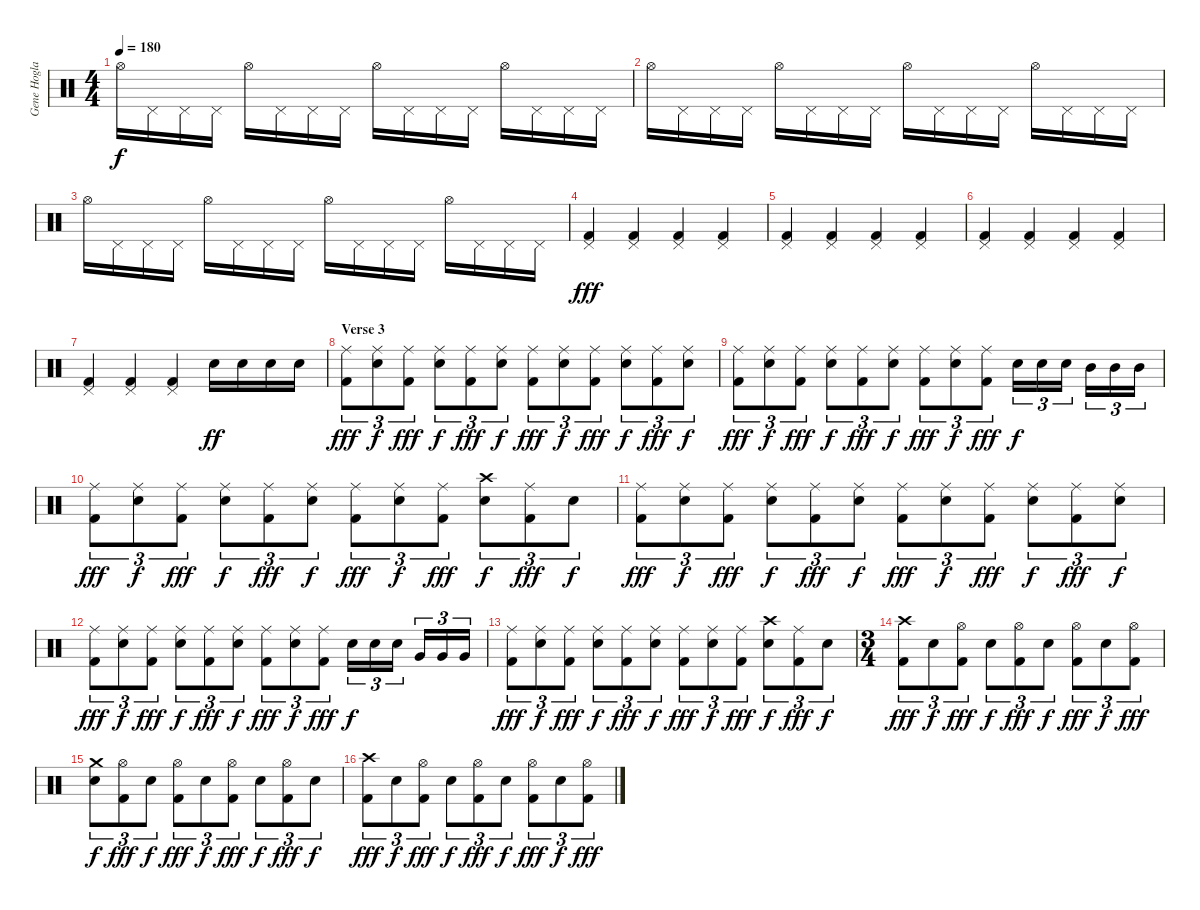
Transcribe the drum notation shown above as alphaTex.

\track ("Gene Hoglan" "Gene Hogla") {instrument percussion}
\staff {score}
\articulation defaults
\ts (4 4)
\tempo 180
\clef neutral
\ks c "Hi-Hat (open)".16{dy f} "Pedal Hi-Hat (hit)".16 "Pedal Hi-Hat (hit)".16 "Pedal Hi-Hat (hit)".16 "Hi-Hat (open)".16 "Pedal Hi-Hat (hit)".16 "Pedal Hi-Hat (hit)".16 "Pedal Hi-Hat (hit)".16 "Hi-Hat (open)".16 "Pedal Hi-Hat (hit)".16 "Pedal Hi-Hat (hit)".16 "Pedal Hi-Hat (hit)".16 "Hi-Hat (open)".16 "Pedal Hi-Hat (hit)".16 "Pedal Hi-Hat (hit)".16 "Pedal Hi-Hat (hit)".16
|
"Hi-Hat (open)".16 "Pedal Hi-Hat (hit)".16 "Pedal Hi-Hat (hit)".16 "Pedal Hi-Hat (hit)".16 "Hi-Hat (open)".16 "Pedal Hi-Hat (hit)".16 "Pedal Hi-Hat (hit)".16 "Pedal Hi-Hat (hit)".16 "Hi-Hat (open)".16 "Pedal Hi-Hat (hit)".16 "Pedal Hi-Hat (hit)".16 "Pedal Hi-Hat (hit)".16 "Hi-Hat (open)".16 "Pedal Hi-Hat (hit)".16 "Pedal Hi-Hat (hit)".16 "Pedal Hi-Hat (hit)".16 |
"Hi-Hat (open)".16 "Pedal Hi-Hat (hit)".16 "Pedal Hi-Hat (hit)".16 "Pedal Hi-Hat (hit)".16 "Hi-Hat (open)".16 "Pedal Hi-Hat (hit)".16 "Pedal Hi-Hat (hit)".16 "Pedal Hi-Hat (hit)".16 "Hi-Hat (open)".16 "Pedal Hi-Hat (hit)".16 "Pedal Hi-Hat (hit)".16 "Pedal Hi-Hat (hit)".16 "Hi-Hat (open)".16 "Pedal Hi-Hat (hit)".16 "Pedal Hi-Hat (hit)".16 "Pedal Hi-Hat (hit)".16 |
("Pedal Hi-Hat (hit)" "Kick (hit) 2").4{dy fff} ("Pedal Hi-Hat (hit)" "Kick (hit) 2").4 ("Pedal Hi-Hat (hit)" "Kick (hit) 2").4 ("Pedal Hi-Hat (hit)" "Kick (hit) 2").4 |
("Pedal Hi-Hat (hit)" "Kick (hit) 2").4 ("Pedal Hi-Hat (hit)" "Kick (hit) 2").4 ("Pedal Hi-Hat (hit)" "Kick (hit) 2").4 ("Pedal Hi-Hat (hit)" "Kick (hit) 2").4 |
("Pedal Hi-Hat (hit)" "Kick (hit) 2").4 ("Pedal Hi-Hat (hit)" "Kick (hit) 2").4 ("Pedal Hi-Hat (hit)" "Kick (hit) 2").4 ("Pedal Hi-Hat (hit)" "Kick (hit) 2").4 |
("Pedal Hi-Hat (hit)" "Kick (hit) 2").4 ("Pedal Hi-Hat (hit)" "Kick (hit) 2").4 ("Pedal Hi-Hat (hit)" "Kick (hit) 2").4 "Snare (hit) 2".16{dy ff} "Snare (hit) 2".16 "Snare (hit) 2".16 "Snare (hit) 2".16 |
\section ("" "Verse 3")
("Ride (middle)" "Kick (hit) 2").8{tu (3 2) dy fff} ("Snare (hit) 2" "Ride (middle)").8{tu (3 2) dy f} ("Ride (middle)" "Kick (hit) 2").8{tu (3 2) dy fff} ("Snare (hit) 2" "Ride (middle)").8{tu (3 2) dy f} ("Ride (middle)" "Kick (hit) 2").8{tu (3 2) dy fff} ("Snare (hit) 2" "Ride (middle)").8{tu (3 2) dy f} ("Ride (middle)" "Kick (hit) 2").8{tu (3 2) dy fff} ("Snare (hit) 2" "Ride (middle)").8{tu (3 2) dy f} ("Ride (middle)" "Kick (hit) 2").8{tu (3 2) dy fff} ("Snare (hit) 2" "Ride (middle)").8{tu (3 2) dy f} ("Ride (middle)" "Kick (hit) 2").8{tu (3 2) dy fff} ("Snare (hit) 2" "Ride (middle)").8{tu (3 2) dy f} |
("Ride (middle)" "Kick (hit) 2").8{tu (3 2) dy fff} ("Snare (hit) 2" "Ride (middle)").8{tu (3 2) dy f} ("Ride (middle)" "Kick (hit) 2").8{tu (3 2) dy fff} ("Snare (hit) 2" "Ride (middle)").8{tu (3 2) dy f} ("Ride (middle)" "Kick (hit) 2").8{tu (3 2) dy fff} ("Snare (hit) 2" "Ride (middle)").8{tu (3 2) dy f} ("Ride (middle)" "Kick (hit) 2").8{tu (3 2) dy fff} ("Snare (hit) 2" "Ride (middle)").8{tu (3 2) dy f} ("Ride (middle)" "Kick (hit) 2").8{tu (3 2) dy fff} "Snare (hit) 2".16{tu (3 2) dy f} "Snare (hit) 2".16{tu (3 2)} "Snare (hit) 2".16{tu (3 2)} "Mid Tom (hit)".16{tu (3 2)} "Mid Tom (hit)".16{tu (3 2)} "Mid Tom (hit)".16{tu (3 2)} |
("Ride (middle)" "Kick (hit) 2").8{tu (3 2) dy fff} ("Snare (hit) 2" "Ride (middle)").8{tu (3 2) dy f} ("Ride (middle)" "Kick (hit) 2").8{tu (3 2) dy fff} ("Snare (hit) 2" "Ride (middle)").8{tu (3 2) dy f} ("Ride (middle)" "Kick (hit) 2").8{tu (3 2) dy fff} ("Snare (hit) 2" "Ride (middle)").8{tu (3 2) dy f} ("Ride (middle)" "Kick (hit) 2").8{tu (3 2) dy fff} ("Snare (hit) 2" "Ride (middle)").8{tu (3 2) dy f} ("Ride (middle)" "Kick (hit) 2").8{tu (3 2) dy fff} ("Crash high (hit)" "Snare (hit) 2").8{tu (3 2) dy f} ("Ride (middle)" "Kick (hit) 2").8{tu (3 2) dy fff} "Snare (hit) 2".8{tu (3 2) dy f} |
("Ride (middle)" "Kick (hit) 2").8{tu (3 2) dy fff} ("Snare (hit) 2" "Ride (middle)").8{tu (3 2) dy f} ("Ride (middle)" "Kick (hit) 2").8{tu (3 2) dy fff} ("Snare (hit) 2" "Ride (middle)").8{tu (3 2) dy f} ("Ride (middle)" "Kick (hit) 2").8{tu (3 2) dy fff} ("Snare (hit) 2" "Ride (middle)").8{tu (3 2) dy f} ("Ride (middle)" "Kick (hit) 2").8{tu (3 2) dy fff} ("Snare (hit) 2" "Ride (middle)").8{tu (3 2) dy f} ("Ride (middle)" "Kick (hit) 2").8{tu (3 2) dy fff} ("Snare (hit) 2" "Ride (middle)").8{tu (3 2) dy f} ("Ride (middle)" "Kick (hit) 2").8{tu (3 2) dy fff} ("Snare (hit) 2" "Ride (middle)").8{tu (3 2) dy f} |
("Ride (middle)" "Kick (hit) 2").8{tu (3 2) dy fff} ("Snare (hit) 2" "Ride (middle)").8{tu (3 2) dy f} ("Ride (middle)" "Kick (hit) 2").8{tu (3 2) dy fff} ("Snare (hit) 2" "Ride (middle)").8{tu (3 2) dy f} ("Ride (middle)" "Kick (hit) 2").8{tu (3 2) dy fff} ("Snare (hit) 2" "Ride (middle)").8{tu (3 2) dy f} ("Ride (middle)" "Kick (hit) 2").8{tu (3 2) dy fff} ("Snare (hit) 2" "Ride (middle)").8{tu (3 2) dy f} ("Ride (middle)" "Kick (hit) 2").8{tu (3 2) dy fff} "Snare (hit) 2".16{tu (3 2) dy f} "Snare (hit) 2".16{tu (3 2)} "Snare (hit) 2".16{tu (3 2)} "Very Low Tom (hit)".16{tu (3 2)} "Very Low Tom (hit)".16{tu (3 2)} "Very Low Tom (hit)".16{tu (3 2)} |
("Ride (middle)" "Kick (hit) 2").8{tu (3 2) dy fff} ("Snare (hit) 2" "Ride (middle)").8{tu (3 2) dy f} ("Ride (middle)" "Kick (hit) 2").8{tu (3 2) dy fff} ("Snare (hit) 2" "Ride (middle)").8{tu (3 2) dy f} ("Ride (middle)" "Kick (hit) 2").8{tu (3 2) dy fff} ("Snare (hit) 2" "Ride (middle)").8{tu (3 2) dy f} ("Ride (middle)" "Kick (hit) 2").8{tu (3 2) dy fff} ("Snare (hit) 2" "Ride (middle)").8{tu (3 2) dy f} ("Ride (middle)" "Kick (hit) 2").8{tu (3 2) dy fff} ("Crash high (hit)" "Snare (hit) 2").8{tu (3 2) dy f} ("Ride (middle)" "Kick (hit) 2").8{tu (3 2) dy fff} "Snare (hit) 2".8{tu (3 2) dy f} |
\ts (3 4)
("Crash high (hit)" "Kick (hit) 2").8{tu (3 2) dy fff} "Snare (hit) 2".8{tu (3 2) dy f} ("Hi-Hat (open)" "Kick (hit) 2").8{tu (3 2) dy fff} "Snare (hit) 2".8{tu (3 2) dy f} ("Hi-Hat (open)" "Kick (hit) 2").8{tu (3 2) dy fff} "Snare (hit) 2".8{tu (3 2) dy f} ("Hi-Hat (open)" "Kick (hit) 2").8{tu (3 2) dy fff} "Snare (hit) 2".8{tu (3 2) dy f} ("Hi-Hat (open)" "Kick (hit) 2").8{tu (3 2) dy fff} |
("Crash medium (hit)" "Snare (hit) 2").8{tu (3 2) dy f} ("Hi-Hat (open)" "Kick (hit) 2").8{tu (3 2) dy fff} "Snare (hit) 2".8{tu (3 2) dy f} ("Hi-Hat (open)" "Kick (hit) 2").8{tu (3 2) dy fff} "Snare (hit) 2".8{tu (3 2) dy f} ("Hi-Hat (open)" "Kick (hit) 2").8{tu (3 2) dy fff} "Snare (hit) 2".8{tu (3 2) dy f} ("Hi-Hat (open)" "Kick (hit) 2").8{tu (3 2) dy fff} "Snare (hit) 2".8{tu (3 2) dy f} |
("Crash high (hit)" "Kick (hit) 2").8{tu (3 2) dy fff} "Snare (hit) 2".8{tu (3 2) dy f} ("Hi-Hat (open)" "Kick (hit) 2").8{tu (3 2) dy fff} "Snare (hit) 2".8{tu (3 2) dy f} ("Hi-Hat (open)" "Kick (hit) 2").8{tu (3 2) dy fff} "Snare (hit) 2".8{tu (3 2) dy f} ("Hi-Hat (open)" "Kick (hit) 2").8{tu (3 2) dy fff} "Snare (hit) 2".8{tu (3 2) dy f} ("Hi-Hat (open)" "Kick (hit) 2").8{tu (3 2) dy fff}
